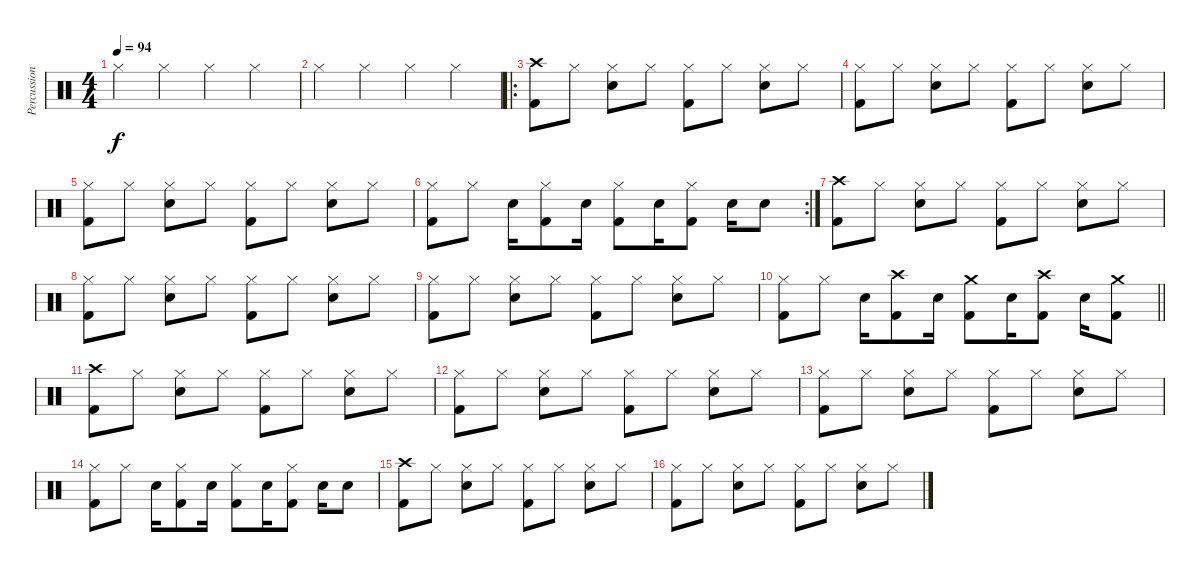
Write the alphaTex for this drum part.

\track ("Percussion" "Percussion") {instrument percussion}
\staff {score}
\articulation defaults
\ts (4 4)
\tempo 94
\clef neutral
\ks c "Hi-Hat (closed)".4{dy f} "Hi-Hat (closed)".4 "Hi-Hat (closed)".4 "Hi-Hat (closed)".4
|
"Hi-Hat (closed)".4 "Hi-Hat (closed)".4 "Hi-Hat (closed)".4 "Hi-Hat (closed)".4 |
\ro
("Crash high (hit)" "Kick (hit) 2").8 "Hi-Hat (closed)".8 ("Hi-Hat (closed)" "Snare (hit) 2").8 "Hi-Hat (closed)".8 ("Hi-Hat (closed)" "Kick (hit) 2").8 "Hi-Hat (closed)".8 ("Hi-Hat (closed)" "Snare (hit) 2").8 "Hi-Hat (closed)".8 |
("Hi-Hat (closed)" "Kick (hit) 2").8 "Hi-Hat (closed)".8 ("Hi-Hat (closed)" "Snare (hit) 2").8 "Hi-Hat (closed)".8 ("Hi-Hat (closed)" "Kick (hit) 2").8 "Hi-Hat (closed)".8 ("Hi-Hat (closed)" "Snare (hit) 2").8 "Hi-Hat (closed)".8 |
("Hi-Hat (closed)" "Kick (hit) 2").8 "Hi-Hat (closed)".8 ("Hi-Hat (closed)" "Snare (hit) 2").8 "Hi-Hat (closed)".8 ("Hi-Hat (closed)" "Kick (hit) 2").8 "Hi-Hat (closed)".8 ("Hi-Hat (closed)" "Snare (hit) 2").8 "Hi-Hat (closed)".8 |
\rc 2
("Hi-Hat (closed)" "Kick (hit) 2").8 "Hi-Hat (closed)".8 "Snare (hit) 2".16 ("Hi-Hat (closed)" "Kick (hit) 2").8 "Snare (hit) 2".16 ("Hi-Hat (closed)" "Kick (hit) 2").8 "Snare (hit) 2".16 ("Hi-Hat (closed)" "Kick (hit) 2").8 "Snare (hit) 2".16 "Snare (hit) 2".8 |
("Crash high (hit)" "Kick (hit) 2").8 "Hi-Hat (closed)".8 ("Hi-Hat (closed)" "Snare (hit) 2").8 "Hi-Hat (closed)".8 ("Hi-Hat (closed)" "Kick (hit) 2").8 "Hi-Hat (closed)".8 ("Hi-Hat (closed)" "Snare (hit) 2").8 "Hi-Hat (closed)".8 |
("Hi-Hat (closed)" "Kick (hit) 2").8 "Hi-Hat (closed)".8 ("Hi-Hat (closed)" "Snare (hit) 2").8 "Hi-Hat (closed)".8 ("Hi-Hat (closed)" "Kick (hit) 2").8 "Hi-Hat (closed)".8 ("Hi-Hat (closed)" "Snare (hit) 2").8 "Hi-Hat (closed)".8 |
("Hi-Hat (closed)" "Kick (hit) 2").8 "Hi-Hat (closed)".8 ("Hi-Hat (closed)" "Snare (hit) 2").8 "Hi-Hat (closed)".8 ("Hi-Hat (closed)" "Kick (hit) 2").8 "Hi-Hat (closed)".8 ("Hi-Hat (closed)" "Snare (hit) 2").8 "Hi-Hat (closed)".8 |
\barLineRight lightlight
("Hi-Hat (closed)" "Kick (hit) 2").8 "Hi-Hat (closed)".8 "Snare (hit) 2".16 ("Crash high (hit)" "Kick (hit) 2").8 "Snare (hit) 2".16 ("Crash medium (hit)" "Kick (hit) 2").8 "Snare (hit) 2".16 ("Crash high (hit)" "Kick (hit) 2").8 "Snare (hit) 2".16 ("Crash medium (hit)" "Kick (hit) 2").8 |
("Crash high (hit)" "Kick (hit) 2").8 "Hi-Hat (closed)".8 ("Hi-Hat (closed)" "Snare (hit) 2").8 "Hi-Hat (closed)".8 ("Hi-Hat (closed)" "Kick (hit) 2").8 "Hi-Hat (closed)".8 ("Hi-Hat (closed)" "Snare (hit) 2").8 "Hi-Hat (closed)".8 |
("Hi-Hat (closed)" "Kick (hit) 2").8 "Hi-Hat (closed)".8 ("Hi-Hat (closed)" "Snare (hit) 2").8 "Hi-Hat (closed)".8 ("Hi-Hat (closed)" "Kick (hit) 2").8 "Hi-Hat (closed)".8 ("Hi-Hat (closed)" "Snare (hit) 2").8 "Hi-Hat (closed)".8 |
("Hi-Hat (closed)" "Kick (hit) 2").8 "Hi-Hat (closed)".8 ("Hi-Hat (closed)" "Snare (hit) 2").8 "Hi-Hat (closed)".8 ("Hi-Hat (closed)" "Kick (hit) 2").8 "Hi-Hat (closed)".8 ("Hi-Hat (closed)" "Snare (hit) 2").8 "Hi-Hat (closed)".8 |
("Hi-Hat (closed)" "Kick (hit) 2").8 "Hi-Hat (closed)".8 "Snare (hit) 2".16 ("Hi-Hat (closed)" "Kick (hit) 2").8 "Snare (hit) 2".16 ("Hi-Hat (closed)" "Kick (hit) 2").8 "Snare (hit) 2".16 ("Hi-Hat (closed)" "Kick (hit) 2").8 "Snare (hit) 2".16 "Snare (hit) 2".8 |
("Crash high (hit)" "Kick (hit) 2").8 "Hi-Hat (closed)".8 ("Hi-Hat (closed)" "Snare (hit) 2").8 "Hi-Hat (closed)".8 ("Hi-Hat (closed)" "Kick (hit) 2").8 "Hi-Hat (closed)".8 ("Hi-Hat (closed)" "Snare (hit) 2").8 "Hi-Hat (closed)".8 |
("Hi-Hat (closed)" "Kick (hit) 2").8 "Hi-Hat (closed)".8 ("Hi-Hat (closed)" "Snare (hit) 2").8 "Hi-Hat (closed)".8 ("Hi-Hat (closed)" "Kick (hit) 2").8 "Hi-Hat (closed)".8 ("Hi-Hat (closed)" "Snare (hit) 2").8 "Hi-Hat (closed)".8
